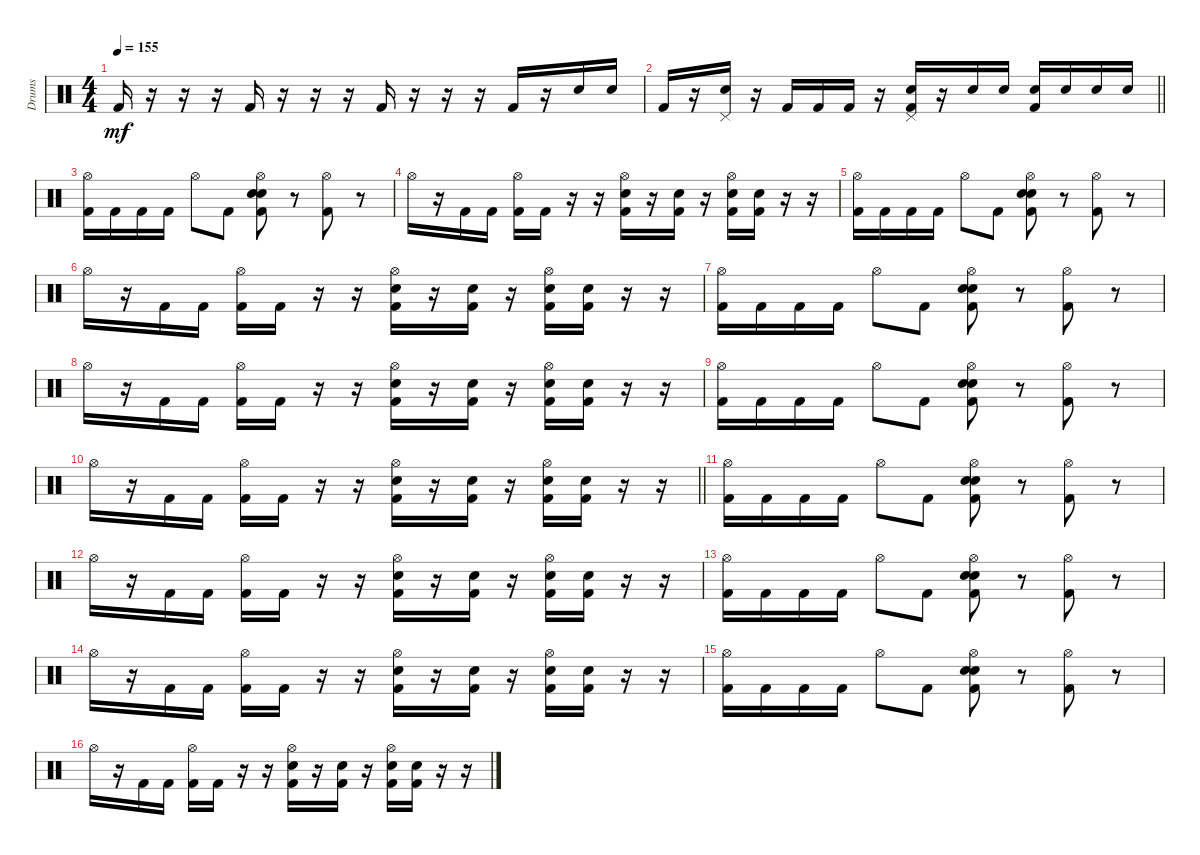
\track ("Drums" "Drums") {instrument percussion}
\staff {score}
\articulation defaults
\ts (4 4)
\tempo 155
\clef neutral
\ks c "Kick (hit) 2".16{dy mf}
r.16 r.16 r.16 "Kick (hit) 2".16 r.16 r.16 r.16 "Kick (hit) 2".16 r.16 r.16 r.16 "Kick (hit) 2".16 r.16 "Electric Snare (hit)".16 "Electric Snare (hit)".16 |
\barLineRight lightlight "Kick (hit) 2".16
r.16 ("Electric Snare (hit)" "Pedal Hi-Hat (hit)").16 r.16 "Kick (hit) 2".16 "Kick (hit) 2".16 "Kick (hit) 2".16 r.16 ("Electric Snare (hit)" "Pedal Hi-Hat (hit)" "Kick (hit) 2").16 r.16 "Electric Snare (hit)".16 "Electric Snare (hit)".16 ("Snare (hit) 2" "Kick (hit) 2").16 "Snare (hit) 2".16 "Snare (hit) 2".16 "Snare (hit) 2".16 |
\section ("" "")
("Kick (hit) 2" "Hi-Hat (open)").16 "Kick (hit) 2".16 "Kick (hit) 2".16 "Kick (hit) 2".16 "Hi-Hat (open)".8 "Kick (hit) 2".8 ("Snare (hit) 2" "Kick (hit) 2" "Electric Snare (hit)" "Hi-Hat (open)").8 r.8 ("Kick (hit) 2" "Hi-Hat (open)").8 r.8 |
"Hi-Hat (open)".16 r.16 "Kick (hit) 2".16 "Kick (hit) 2".16 ("Kick (hit) 2" "Hi-Hat (open)").16 "Kick (hit) 2".16 r.16 r.16 ("Kick (hit) 2" "Electric Snare (hit)" "Hi-Hat (open)").16 r.16 ("Kick (hit) 2" "Electric Snare (hit)").16 r.16 ("Kick (hit) 2" "Electric Snare (hit)" "Hi-Hat (open)").16 ("Kick (hit) 2" "Electric Snare (hit)").16 r.16 r.16 |
("Kick (hit) 2" "Hi-Hat (open)").16 "Kick (hit) 2".16 "Kick (hit) 2".16 "Kick (hit) 2".16 "Hi-Hat (open)".8 "Kick (hit) 2".8 ("Snare (hit) 2" "Kick (hit) 2" "Electric Snare (hit)" "Hi-Hat (open)").8 r.8 ("Kick (hit) 2" "Hi-Hat (open)").8 r.8 |
"Hi-Hat (open)".16 r.16 "Kick (hit) 2".16 "Kick (hit) 2".16 ("Kick (hit) 2" "Hi-Hat (open)").16 "Kick (hit) 2".16 r.16 r.16 ("Kick (hit) 2" "Electric Snare (hit)" "Hi-Hat (open)").16 r.16 ("Kick (hit) 2" "Electric Snare (hit)").16 r.16 ("Kick (hit) 2" "Electric Snare (hit)" "Hi-Hat (open)").16 ("Kick (hit) 2" "Electric Snare (hit)").16 r.16 r.16 |
("Kick (hit) 2" "Hi-Hat (open)").16 "Kick (hit) 2".16 "Kick (hit) 2".16 "Kick (hit) 2".16 "Hi-Hat (open)".8 "Kick (hit) 2".8 ("Snare (hit) 2" "Kick (hit) 2" "Electric Snare (hit)" "Hi-Hat (open)").8 r.8 ("Kick (hit) 2" "Hi-Hat (open)").8 r.8 |
"Hi-Hat (open)".16 r.16 "Kick (hit) 2".16 "Kick (hit) 2".16 ("Kick (hit) 2" "Hi-Hat (open)").16 "Kick (hit) 2".16 r.16 r.16 ("Kick (hit) 2" "Electric Snare (hit)" "Hi-Hat (open)").16 r.16 ("Kick (hit) 2" "Electric Snare (hit)").16 r.16 ("Kick (hit) 2" "Electric Snare (hit)" "Hi-Hat (open)").16 ("Kick (hit) 2" "Electric Snare (hit)").16 r.16 r.16 |
("Kick (hit) 2" "Hi-Hat (open)").16 "Kick (hit) 2".16 "Kick (hit) 2".16 "Kick (hit) 2".16 "Hi-Hat (open)".8 "Kick (hit) 2".8 ("Snare (hit) 2" "Kick (hit) 2" "Electric Snare (hit)" "Hi-Hat (open)").8 r.8 ("Kick (hit) 2" "Hi-Hat (open)").8 r.8 |
\barLineRight lightlight "Hi-Hat (open)".16
r.16 "Kick (hit) 2".16 "Kick (hit) 2".16 ("Kick (hit) 2" "Hi-Hat (open)").16 "Kick (hit) 2".16 r.16 r.16 ("Kick (hit) 2" "Electric Snare (hit)" "Hi-Hat (open)").16 r.16 ("Kick (hit) 2" "Electric Snare (hit)").16 r.16 ("Kick (hit) 2" "Electric Snare (hit)" "Hi-Hat (open)").16 ("Kick (hit) 2" "Electric Snare (hit)").16 r.16 r.16 |
\section ("" "")
("Kick (hit) 2" "Hi-Hat (open)").16 "Kick (hit) 2".16 "Kick (hit) 2".16 "Kick (hit) 2".16 "Hi-Hat (open)".8 "Kick (hit) 2".8 ("Snare (hit) 2" "Kick (hit) 2" "Electric Snare (hit)" "Hi-Hat (open)").8 r.8 ("Kick (hit) 2" "Hi-Hat (open)").8 r.8 |
"Hi-Hat (open)".16 r.16 "Kick (hit) 2".16 "Kick (hit) 2".16 ("Kick (hit) 2" "Hi-Hat (open)").16 "Kick (hit) 2".16 r.16 r.16 ("Kick (hit) 2" "Electric Snare (hit)" "Hi-Hat (open)").16 r.16 ("Kick (hit) 2" "Electric Snare (hit)").16 r.16 ("Kick (hit) 2" "Electric Snare (hit)" "Hi-Hat (open)").16 ("Kick (hit) 2" "Electric Snare (hit)").16 r.16 r.16 |
("Kick (hit) 2" "Hi-Hat (open)").16 "Kick (hit) 2".16 "Kick (hit) 2".16 "Kick (hit) 2".16 "Hi-Hat (open)".8 "Kick (hit) 2".8 ("Snare (hit) 2" "Kick (hit) 2" "Electric Snare (hit)" "Hi-Hat (open)").8 r.8 ("Kick (hit) 2" "Hi-Hat (open)").8 r.8 |
"Hi-Hat (open)".16 r.16 "Kick (hit) 2".16 "Kick (hit) 2".16 ("Kick (hit) 2" "Hi-Hat (open)").16 "Kick (hit) 2".16 r.16 r.16 ("Kick (hit) 2" "Electric Snare (hit)" "Hi-Hat (open)").16 r.16 ("Kick (hit) 2" "Electric Snare (hit)").16 r.16 ("Kick (hit) 2" "Electric Snare (hit)" "Hi-Hat (open)").16 ("Kick (hit) 2" "Electric Snare (hit)").16 r.16 r.16 |
("Kick (hit) 2" "Hi-Hat (open)").16 "Kick (hit) 2".16 "Kick (hit) 2".16 "Kick (hit) 2".16 "Hi-Hat (open)".8 "Kick (hit) 2".8 ("Snare (hit) 2" "Kick (hit) 2" "Electric Snare (hit)" "Hi-Hat (open)").8 r.8 ("Kick (hit) 2" "Hi-Hat (open)").8 r.8 |
"Hi-Hat (open)".16 r.16 "Kick (hit) 2".16 "Kick (hit) 2".16 ("Kick (hit) 2" "Hi-Hat (open)").16 "Kick (hit) 2".16 r.16 r.16 ("Kick (hit) 2" "Electric Snare (hit)" "Hi-Hat (open)").16 r.16 ("Kick (hit) 2" "Electric Snare (hit)").16 r.16 ("Kick (hit) 2" "Electric Snare (hit)" "Hi-Hat (open)").16 ("Kick (hit) 2" "Electric Snare (hit)").16 r.16 r.16
